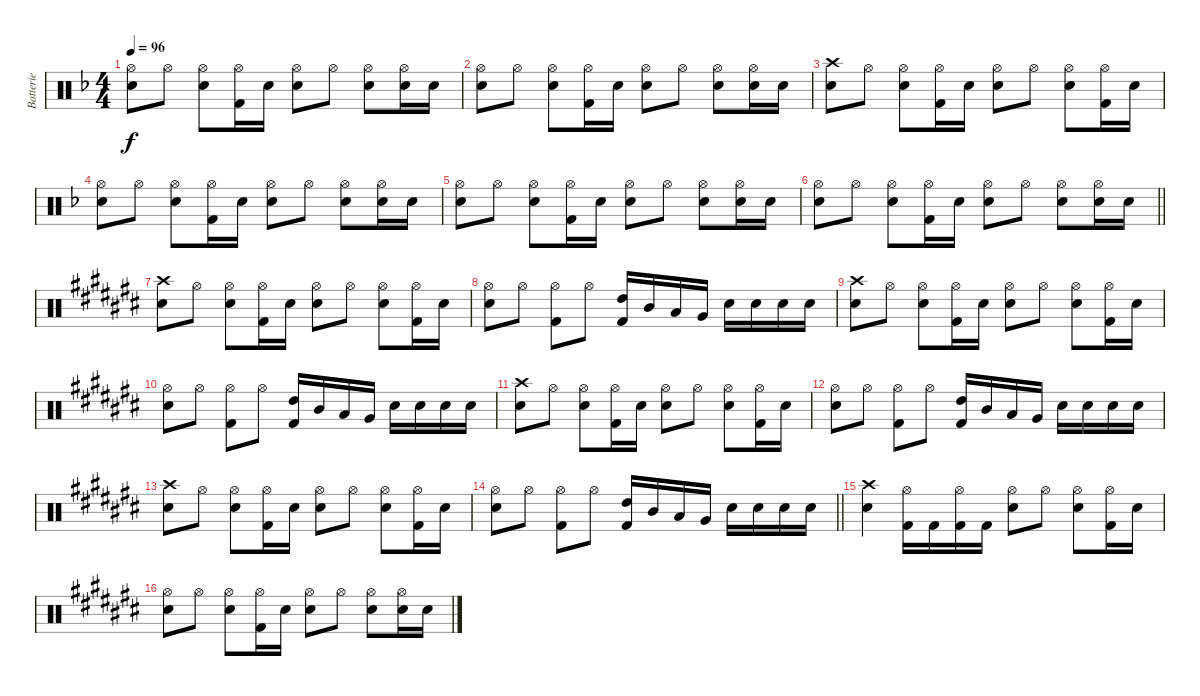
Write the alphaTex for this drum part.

\track ("Batterie" "Batterie") {instrument percussion}
\staff {score}
\articulation defaults
\ts (4 4)
\tempo 96
\clef neutral
\ks f
("Hi-Hat (open)" "Snare (hit) 2").8{dy f} "Hi-Hat (open)".8 ("Hi-Hat (open)" "Snare (hit) 2").8 ("Hi-Hat (open)" "Kick (hit) 2").16 "Snare (hit) 2".16 ("Hi-Hat (open)" "Snare (hit) 2").8 "Hi-Hat (open)".8 ("Hi-Hat (open)" "Snare (hit) 2").8 ("Hi-Hat (open)" "Snare (hit) 2").16 "Snare (hit) 2".16 |
("Hi-Hat (open)" "Snare (hit) 2").8 "Hi-Hat (open)".8 ("Hi-Hat (open)" "Snare (hit) 2").8 ("Hi-Hat (open)" "Kick (hit) 2").16 "Snare (hit) 2".16 ("Hi-Hat (open)" "Snare (hit) 2").8 "Hi-Hat (open)".8 ("Hi-Hat (open)" "Snare (hit) 2").8 ("Hi-Hat (open)" "Snare (hit) 2").16 "Snare (hit) 2".16 |
("Crash high (hit)" "Snare (hit) 2").8 "Hi-Hat (open)".8 ("Hi-Hat (open)" "Snare (hit) 2").8 ("Hi-Hat (open)" "Kick (hit) 2").16 "Snare (hit) 2".16 ("Hi-Hat (open)" "Snare (hit) 2").8 "Hi-Hat (open)".8 ("Hi-Hat (open)" "Snare (hit) 2").8 ("Hi-Hat (open)" "Kick (hit) 2").16 "Snare (hit) 2".16 |
("Hi-Hat (open)" "Snare (hit) 2").8 "Hi-Hat (open)".8 ("Hi-Hat (open)" "Snare (hit) 2").8 ("Hi-Hat (open)" "Kick (hit) 2").16 "Snare (hit) 2".16 ("Hi-Hat (open)" "Snare (hit) 2").8 "Hi-Hat (open)".8 ("Hi-Hat (open)" "Snare (hit) 2").8 ("Hi-Hat (open)" "Snare (hit) 2").16 "Snare (hit) 2".16 |
("Hi-Hat (open)" "Snare (hit) 2").8 "Hi-Hat (open)".8 ("Hi-Hat (open)" "Snare (hit) 2").8 ("Hi-Hat (open)" "Kick (hit) 2").16 "Snare (hit) 2".16 ("Hi-Hat (open)" "Snare (hit) 2").8 "Hi-Hat (open)".8 ("Hi-Hat (open)" "Snare (hit) 2").8 ("Hi-Hat (open)" "Snare (hit) 2").16 "Snare (hit) 2".16 |
\barLineRight lightlight
("Hi-Hat (open)" "Snare (hit) 2").8 "Hi-Hat (open)".8 ("Hi-Hat (open)" "Snare (hit) 2").8 ("Hi-Hat (open)" "Kick (hit) 2").16 "Snare (hit) 2".16 ("Hi-Hat (open)" "Snare (hit) 2").8 "Hi-Hat (open)".8 ("Hi-Hat (open)" "Snare (hit) 2").8 ("Hi-Hat (open)" "Snare (hit) 2").16 "Snare (hit) 2".16 |
\ks c#
("Crash high (hit)" "Snare (hit) 2").8 "Hi-Hat (open)".8 ("Hi-Hat (open)" "Snare (hit) 2").8 ("Hi-Hat (open)" "Kick (hit) 2").16 "Snare (hit) 2".16 ("Hi-Hat (open)" "Snare (hit) 2").8 "Hi-Hat (open)".8 ("Hi-Hat (open)" "Snare (hit) 2").8 ("Hi-Hat (open)" "Kick (hit) 2").16 "Snare (hit) 2".16 |
("Hi-Hat (open)" "Snare (hit) 2").8 "Hi-Hat (open)".8 ("Hi-Hat (open)" "Kick (hit) 2").8 "Hi-Hat (open)".8 ("High Tom (hit)" "Kick (hit) 2").16 "Mid Tom (hit)".16 "Low Tom (hit)".16 "Very Low Tom (hit)".16 "Snare (hit) 2".16 "Snare (hit) 2".16 "Snare (hit) 2".16 "Snare (hit) 2".16 |
("Crash high (hit)" "Snare (hit) 2").8 "Hi-Hat (open)".8 ("Hi-Hat (open)" "Snare (hit) 2").8 ("Hi-Hat (open)" "Kick (hit) 2").16 "Snare (hit) 2".16 ("Hi-Hat (open)" "Snare (hit) 2").8 "Hi-Hat (open)".8 ("Hi-Hat (open)" "Snare (hit) 2").8 ("Hi-Hat (open)" "Kick (hit) 2").16 "Snare (hit) 2".16 |
("Hi-Hat (open)" "Snare (hit) 2").8 "Hi-Hat (open)".8 ("Hi-Hat (open)" "Kick (hit) 2").8 "Hi-Hat (open)".8 ("High Tom (hit)" "Kick (hit) 2").16 "Mid Tom (hit)".16 "Low Tom (hit)".16 "Very Low Tom (hit)".16 "Snare (hit) 2".16 "Snare (hit) 2".16 "Snare (hit) 2".16 "Snare (hit) 2".16 |
("Crash high (hit)" "Snare (hit) 2").8 "Hi-Hat (open)".8 ("Hi-Hat (open)" "Snare (hit) 2").8 ("Hi-Hat (open)" "Kick (hit) 2").16 "Snare (hit) 2".16 ("Hi-Hat (open)" "Snare (hit) 2").8 "Hi-Hat (open)".8 ("Hi-Hat (open)" "Snare (hit) 2").8 ("Hi-Hat (open)" "Kick (hit) 2").16 "Snare (hit) 2".16 |
("Hi-Hat (open)" "Snare (hit) 2").8 "Hi-Hat (open)".8 ("Hi-Hat (open)" "Kick (hit) 2").8 "Hi-Hat (open)".8 ("High Tom (hit)" "Kick (hit) 2").16 "Mid Tom (hit)".16 "Low Tom (hit)".16 "Very Low Tom (hit)".16 "Snare (hit) 2".16 "Snare (hit) 2".16 "Snare (hit) 2".16 "Snare (hit) 2".16 |
("Crash high (hit)" "Snare (hit) 2").8 "Hi-Hat (open)".8 ("Hi-Hat (open)" "Snare (hit) 2").8 ("Hi-Hat (open)" "Kick (hit) 2").16 "Snare (hit) 2".16 ("Hi-Hat (open)" "Snare (hit) 2").8 "Hi-Hat (open)".8 ("Hi-Hat (open)" "Snare (hit) 2").8 ("Hi-Hat (open)" "Kick (hit) 2").16 "Snare (hit) 2".16 |
\barLineRight lightlight
("Hi-Hat (open)" "Snare (hit) 2").8 "Hi-Hat (open)".8 ("Hi-Hat (open)" "Kick (hit) 2").8 "Hi-Hat (open)".8 ("High Tom (hit)" "Kick (hit) 2").16 "Mid Tom (hit)".16 "Low Tom (hit)".16 "Very Low Tom (hit)".16 "Snare (hit) 2".16 "Snare (hit) 2".16 "Snare (hit) 2".16 "Snare (hit) 2".16 |
("Crash high (hit)" "Snare (hit) 2").4 ("Hi-Hat (open)" "Kick (hit) 2").16 "Kick (hit) 2".16 ("Hi-Hat (open)" "Kick (hit) 2").16 "Kick (hit) 2".16 ("Hi-Hat (open)" "Snare (hit) 2").8 "Hi-Hat (open)".8 ("Hi-Hat (open)" "Snare (hit) 2").8 ("Hi-Hat (open)" "Kick (hit) 2").16 "Snare (hit) 2".16 |
("Hi-Hat (open)" "Snare (hit) 2").8 "Hi-Hat (open)".8 ("Hi-Hat (open)" "Snare (hit) 2").8 ("Hi-Hat (open)" "Kick (hit) 2").16 "Snare (hit) 2".16 ("Hi-Hat (open)" "Snare (hit) 2").8 "Hi-Hat (open)".8 ("Hi-Hat (open)" "Snare (hit) 2").8 ("Hi-Hat (open)" "Snare (hit) 2").16 "Snare (hit) 2".16
